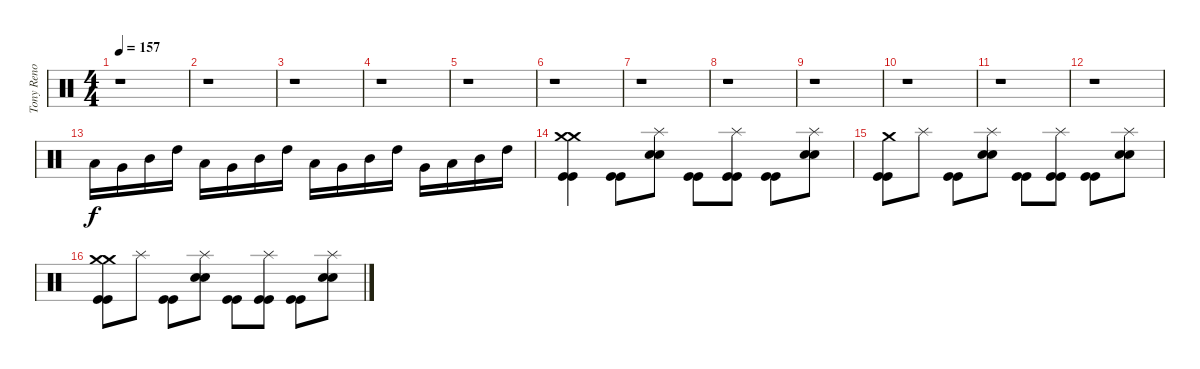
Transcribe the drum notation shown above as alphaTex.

\track ("Tony Reno ( 1984 < Ian Haughland )" "Tony Reno ") {instrument percussion}
\staff {score}
\articulation defaults
\ts (4 4)
\tempo 157
\clef neutral
\ks c
r.1{dy f} |
r.1 |
r.1 |
r.1 |
r.1 |
r.1 |
r.1 |
r.1 |
r.1 |
r.1 |
r.1 |
r.1 |
"Low Tom (hit)".16 "Very Low Tom (hit)".16 "Mid Tom (hit)".16 "High Tom (hit)".16 "Low Tom (hit)".16 "Very Low Tom (hit)".16 "Mid Tom (hit)".16 "High Tom (hit)".16 "Low Tom (hit)".16 "Very Low Tom (hit)".16 "Mid Tom (hit)".16 "High Tom (hit)".16 "Very Low Tom (hit)".16 "Low Tom (hit)".16 "Mid Tom (hit)".16 "High Tom (hit)".16 |
("Crash medium (hit)" "Crash medium (hit)" "Kick (hit)" "Kick (hit)").4 ("Kick (hit)" "Kick (hit)").8 ("Splash (hit)" "Electric Snare (hit)" "Electric Snare (hit)").8 ("Kick (hit)" "Kick (hit)").8 ("Splash (hit)" "Kick (hit)" "Kick (hit)").8 ("Kick (hit)" "Kick (hit)").8 ("Electric Snare (hit)" "Electric Snare (hit)" "Splash (hit)").8 |
("Kick (hit)" "Kick (hit)" "Crash medium (hit)").8 "Splash (hit)".8 ("Kick (hit)" "Kick (hit)").8 ("Electric Snare (hit)" "Electric Snare (hit)" "Splash (hit)").8 ("Kick (hit)" "Kick (hit)").8 ("Kick (hit)" "Kick (hit)" "Splash (hit)").8 ("Kick (hit)" "Kick (hit)").8 ("Electric Snare (hit)" "Electric Snare (hit)" "Splash (hit)").8 |
("Crash medium (hit)" "Crash medium (hit)" "Kick (hit)" "Kick (hit)").8 "Splash (hit)".8 ("Kick (hit)" "Kick (hit)").8 ("Splash (hit)" "Electric Snare (hit)" "Electric Snare (hit)").8 ("Kick (hit)" "Kick (hit)").8 ("Splash (hit)" "Kick (hit)" "Kick (hit)").8 ("Kick (hit)" "Kick (hit)").8 ("Electric Snare (hit)" "Electric Snare (hit)" "Splash (hit)").8
